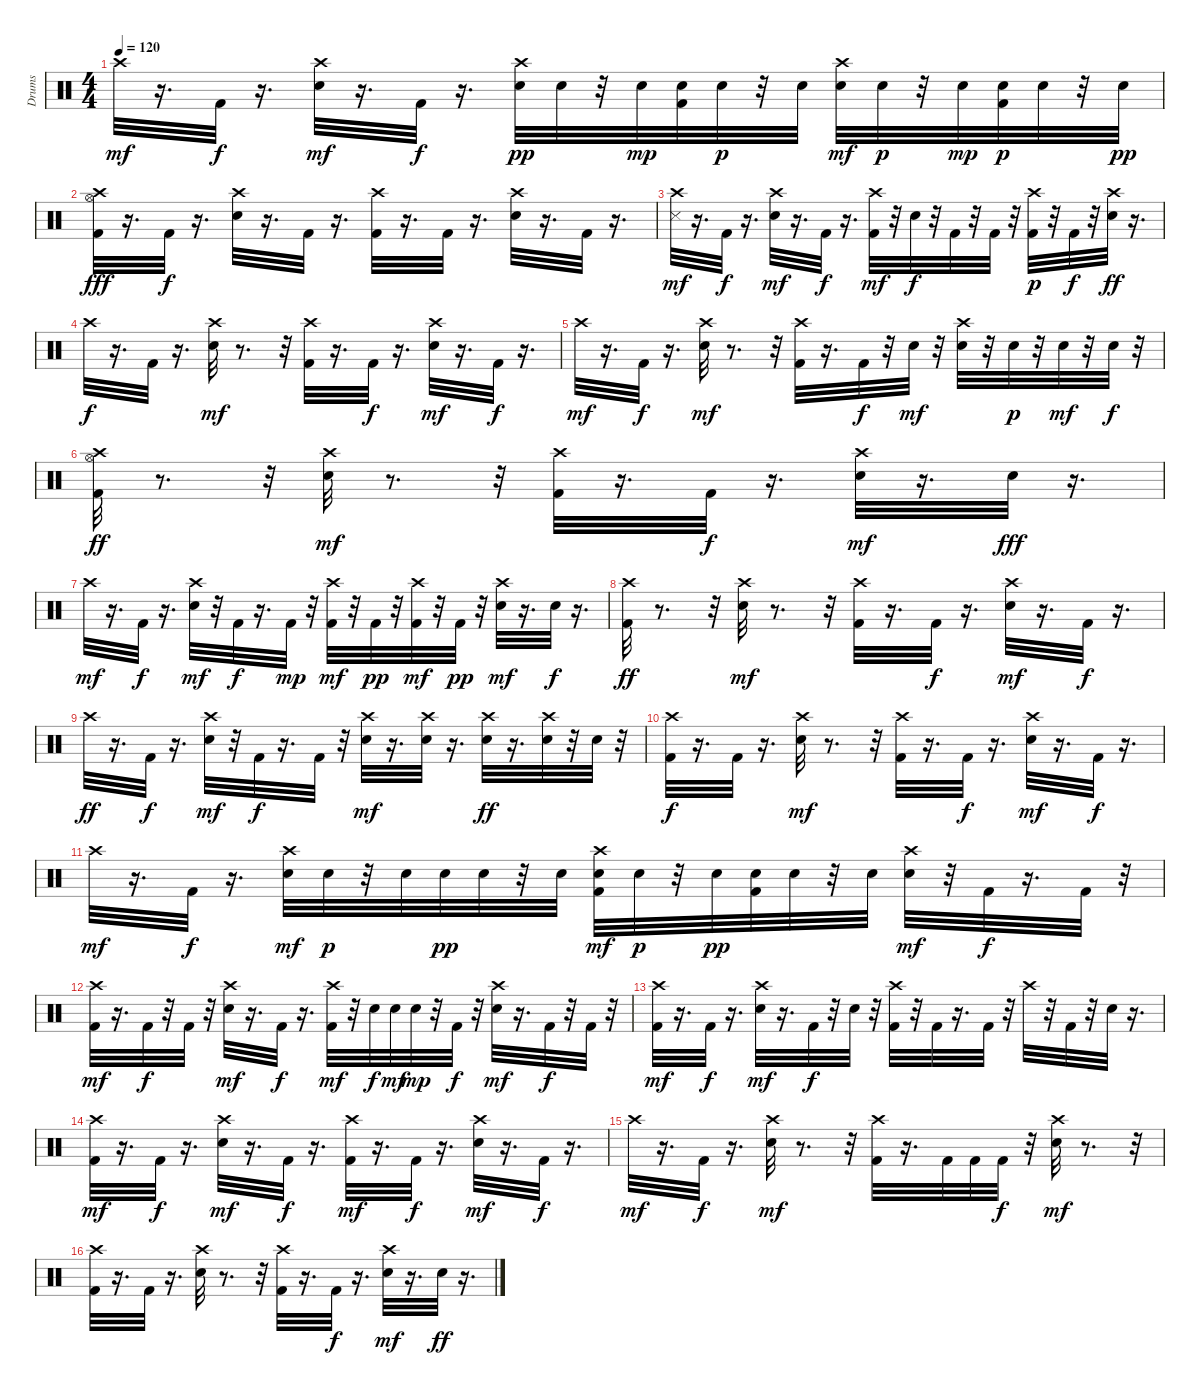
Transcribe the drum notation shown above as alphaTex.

\track ("Drums" "Drums") {instrument percussion}
\staff {score}
\articulation defaults
\ts (4 4)
\tempo 120
\clef neutral
\ks c "Crash high (hit)".32{dy mf}
r.16{d} "Kick (hit) 2".32{dy f} r.16{d} ("Crash high (hit)" "Snare (hit) 2").32{dy mf} r.16{d} "Kick (hit) 2".32{dy f} r.16{d} ("Crash high (hit)" "Snare (hit) 2").32{dy pp} "Snare (hit) 2".32 r.32 "Snare (hit) 2".32{dy mp} ("Kick (hit) 2" "Snare (hit) 2").32 "Snare (hit) 2".32{dy p} r.32 "Snare (hit) 2".32 ("Crash high (hit)" "Snare (hit) 2").32{dy mf} "Snare (hit) 2".32{dy p} r.32 "Snare (hit) 2".32{dy mp} ("Snare (hit) 2" "Kick (hit) 2").32{dy p} "Snare (hit) 2".32 r.32 "Snare (hit) 2".32{dy pp} |
("Hi-Hat (open)" "Crash high (hit)" "Kick (hit) 2").32{dy fff} r.16{d} "Kick (hit) 2".32{dy f} r.16{d} ("Crash high (hit)" "Snare (hit) 2").32 r.16{d} "Kick (hit) 2".32 r.16{d} ("Crash high (hit)" "Kick (hit) 2").32 r.16{d} "Kick (hit) 2".32 r.16{d} ("Crash high (hit)" "Snare (hit) 2").32 r.16{d} "Kick (hit) 2".32 r.16{d} |
("Crash high (hit)" "Snare (side stick) 3").32{dy mf} r.16{d} "Kick (hit) 2".32{dy f} r.16{d} ("Crash high (hit)" "Snare (hit) 2").32{dy mf} r.16{d} "Kick (hit) 2".32{dy f} r.16{d} ("Crash high (hit)" "Kick (hit) 2").32{dy mf} r.32 "Snare (hit) 2".32{dy f} r.32 "Kick (hit) 2".32 r.32 "Kick (hit) 2".32 r.32 ("Crash high (hit)" "Kick (hit) 2").32{dy p} r.32 "Kick (hit) 2".32{dy f} r.32 ("Crash high (hit)" "Snare (hit) 2").32{dy ff} r.16{d} |
"Crash high (hit)".32{dy f} r.16{d} "Kick (hit) 2".32 r.16{d} ("Crash high (hit)" "Snare (hit) 2").32{dy mf} r.8{d} r.32 ("Crash high (hit)" "Kick (hit) 2").32 r.16{d} "Kick (hit) 2".32{dy f} r.16{d} ("Crash high (hit)" "Snare (hit) 2").32{dy mf} r.16{d} "Kick (hit) 2".32{dy f} r.16{d} |
"Crash high (hit)".32{dy mf} r.16{d} "Kick (hit) 2".32{dy f} r.16{d} ("Crash high (hit)" "Snare (hit) 2").32{dy mf} r.8{d} r.32 ("Crash high (hit)" "Kick (hit) 2").32 r.16{d} "Kick (hit) 2".32{dy f} r.32 "Snare (hit) 2".32{dy mf} r.32 ("Crash high (hit)" "Snare (hit) 2").32 r.32 "Snare (hit) 2".32{dy p} r.32 "Snare (hit) 2".32{dy mf} r.32 "Snare (hit) 2".32{dy f} r.32 |
("Hi-Hat (open)" "Crash high (hit)" "Kick (hit) 2").32{dy ff} r.8{d} r.32 ("Crash high (hit)" "Snare (hit) 2").32{dy mf} r.8{d} r.32 ("Crash high (hit)" "Kick (hit) 2").32 r.16{d} "Kick (hit) 2".32{dy f} r.16{d} ("Crash high (hit)" "Snare (hit) 2").32{dy mf} r.16{d} "Snare (hit) 2".32{dy fff} r.16{d} |
"Crash high (hit)".32{dy mf} r.16{d} "Kick (hit) 2".32{dy f} r.16{d} ("Crash high (hit)" "Snare (hit) 2").32{dy mf} r.32 "Kick (hit) 2".32{dy f} r.16{d} "Kick (hit) 2".32{dy mp} r.32 ("Crash high (hit)" "Kick (hit) 2").32{dy mf} r.32 "Kick (hit) 2".32{dy pp} r.32 ("Crash high (hit)" "Kick (hit) 2").32{dy mf} r.32 "Kick (hit) 2".32{dy pp} r.32 ("Crash high (hit)" "Snare (hit) 2").32{dy mf} r.16{d} "Snare (hit) 2".32{dy f} r.16{d} |
("Kick (hit) 2" "Crash high (hit)").32{dy ff} r.8{d} r.32 ("Crash high (hit)" "Snare (hit) 2").32{dy mf} r.8{d} r.32 ("Crash high (hit)" "Kick (hit) 2").32 r.16{d} "Kick (hit) 2".32{dy f} r.16{d} ("Crash high (hit)" "Snare (hit) 2").32{dy mf} r.16{d} "Kick (hit) 2".32{dy f} r.16{d} |
"Crash high (hit)".32{dy ff} r.16{d} "Kick (hit) 2".32{dy f} r.16{d} ("Crash high (hit)" "Snare (hit) 2").32{dy mf} r.32 "Kick (hit) 2".32{dy f} r.16{d} "Kick (hit) 2".32 r.32 ("Crash high (hit)" "Snare (hit) 2").32{dy mf} r.16{d} ("Crash high (hit)" "Snare (hit) 2").32 r.16{d} ("Crash high (hit)" "Snare (hit) 2").32{dy ff} r.16{d} ("Crash high (hit)" "Snare (hit) 2").32 r.32 "Snare (hit) 2".32 r.32 |
("Crash high (hit)" "Kick (hit) 2").32{dy f} r.16{d} "Kick (hit) 2".32 r.16{d} ("Crash high (hit)" "Snare (hit) 2").32{dy mf} r.8{d} r.32 ("Crash high (hit)" "Kick (hit) 2").32 r.16{d} "Kick (hit) 2".32{dy f} r.16{d} ("Crash high (hit)" "Snare (hit) 2").32{dy mf} r.16{d} "Kick (hit) 2".32{dy f} r.16{d} |
"Crash high (hit)".32{dy mf} r.16{d} "Kick (hit) 2".32{dy f} r.16{d} ("Crash high (hit)" "Snare (hit) 2").32{dy mf} "Snare (hit) 2".32{dy p} r.32 "Snare (hit) 2".32 "Snare (hit) 2".32{dy pp} "Snare (hit) 2".32 r.32 "Snare (hit) 2".32 ("Crash high (hit)" "Kick (hit) 2" "Snare (hit) 2").32{dy mf} "Snare (hit) 2".32{dy p} r.32 "Snare (hit) 2".32{dy pp} ("Kick (hit) 2" "Snare (hit) 2").32 "Snare (hit) 2".32 r.32 "Snare (hit) 2".32 ("Crash high (hit)" "Snare (hit) 2").32{dy mf} r.32 "Kick (hit) 2".32{dy f} r.16{d} "Kick (hit) 2".32 r.32 |
("Crash high (hit)" "Kick (hit) 2").32{dy mf} r.16{d} "Kick (hit) 2".32{dy f} r.32 "Kick (hit) 2".32 r.32 ("Crash high (hit)" "Snare (hit) 2").32{dy mf} r.16{d} "Kick (hit) 2".32{dy f} r.16{d} ("Crash high (hit)" "Kick (hit) 2").32{dy mf} r.32 "Snare (hit) 2".32{dy f} "Snare (hit) 2".32{dy mf} "Snare (hit) 2".32{dy mp} r.32 "Kick (hit) 2".32{dy f} r.32 ("Crash high (hit)" "Snare (hit) 2").32{dy mf} r.16{d} "Kick (hit) 2".32{dy f} r.32 "Kick (hit) 2".32 r.32 |
("Crash high (hit)" "Kick (hit) 2").32{dy mf} r.16{d} "Kick (hit) 2".32{dy f} r.16{d} ("Crash high (hit)" "Snare (hit) 2").32{dy mf} r.16{d} "Kick (hit) 2".32{dy f} r.32 "Snare (hit) 2".32 r.32 ("Crash high (hit)" "Kick (hit) 2").32 r.32 "Kick (hit) 2".32 r.16{d} "Kick (hit) 2".32 r.32 "Crash high (hit)".32 r.32 "Kick (hit) 2".32 r.32 "Snare (hit) 2".32 r.16{d} |
("Crash high (hit)" "Kick (hit) 2").32{dy mf} r.16{d} "Kick (hit) 2".32{dy f} r.16{d} ("Crash high (hit)" "Snare (hit) 2").32{dy mf} r.16{d} "Kick (hit) 2".32{dy f} r.16{d} ("Crash high (hit)" "Kick (hit) 2").32{dy mf} r.16{d} "Kick (hit) 2".32{dy f} r.16{d} ("Crash high (hit)" "Snare (hit) 2").32{dy mf} r.16{d} "Kick (hit) 2".32{dy f} r.16{d} |
"Crash high (hit)".32{dy mf} r.16{d} "Kick (hit) 2".32{dy f} r.16{d} ("Crash high (hit)" "Snare (hit) 2").32{dy mf} r.8{d} r.32 ("Crash high (hit)" "Kick (hit) 2").32 r.16{d} "Kick (hit) 2".32 "Kick (hit) 2".32 "Kick (hit) 2".32{dy f} r.32 ("Crash high (hit)" "Snare (hit) 2").32{dy mf} r.8{d} r.32 |
("Crash high (hit)" "Kick (hit) 2").32 r.16{d} "Kick (hit) 2".32 r.16{d} ("Crash high (hit)" "Snare (hit) 2").32 r.8{d} r.32 ("Crash high (hit)" "Kick (hit) 2").32 r.16{d} "Kick (hit) 2".32{dy f} r.16{d} ("Crash high (hit)" "Snare (hit) 2").32{dy mf} r.16{d} "Snare (hit) 2".32{dy ff} r.16{d}
